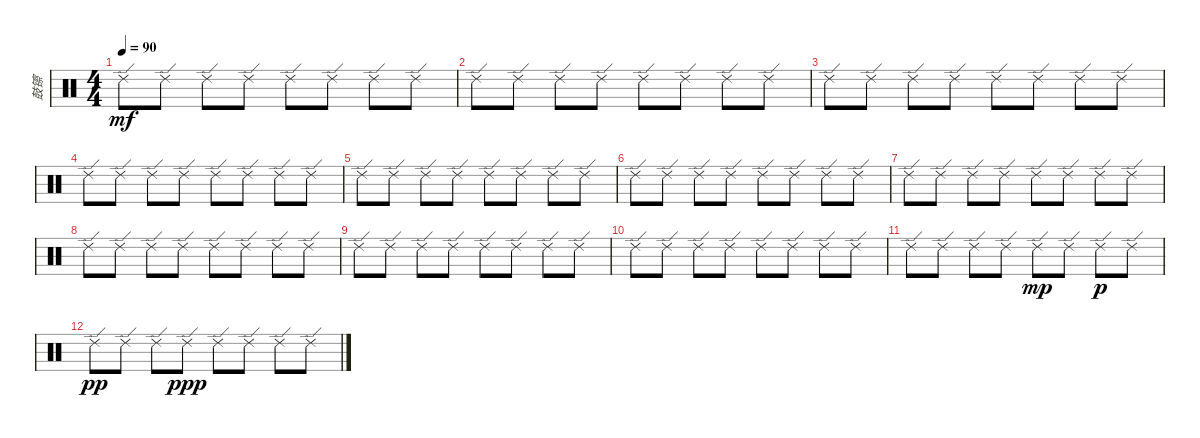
\track ("鼓镲" "鼓镲") {instrument percussion}
\staff {score}
\articulation defaults
\ts (4 4)
\tempo 90
\clef neutral
\ks c "Ride (edge) 2".8{dy mf} "Ride (edge) 2".8 "Ride (edge) 2".8 "Ride (edge) 2".8 "Ride (edge) 2".8 "Ride (edge) 2".8 "Ride (edge) 2".8 "Ride (edge) 2".8
|
"Ride (edge) 2".8 "Ride (edge) 2".8 "Ride (edge) 2".8 "Ride (edge) 2".8 "Ride (edge) 2".8 "Ride (edge) 2".8 "Ride (edge) 2".8 "Ride (edge) 2".8 |
"Ride (edge) 2".8 "Ride (edge) 2".8 "Ride (edge) 2".8 "Ride (edge) 2".8 "Ride (edge) 2".8 "Ride (edge) 2".8 "Ride (edge) 2".8 "Ride (edge) 2".8 |
"Ride (edge) 2".8 "Ride (edge) 2".8 "Ride (edge) 2".8 "Ride (edge) 2".8 "Ride (edge) 2".8 "Ride (edge) 2".8 "Ride (edge) 2".8 "Ride (edge) 2".8 |
"Ride (edge) 2".8 "Ride (edge) 2".8 "Ride (edge) 2".8 "Ride (edge) 2".8 "Ride (edge) 2".8 "Ride (edge) 2".8 "Ride (edge) 2".8 "Ride (edge) 2".8 |
"Ride (edge) 2".8 "Ride (edge) 2".8 "Ride (edge) 2".8 "Ride (edge) 2".8 "Ride (edge) 2".8 "Ride (edge) 2".8 "Ride (edge) 2".8 "Ride (edge) 2".8 |
"Ride (edge) 2".8 "Ride (edge) 2".8 "Ride (edge) 2".8 "Ride (edge) 2".8 "Ride (edge) 2".8 "Ride (edge) 2".8 "Ride (edge) 2".8 "Ride (edge) 2".8 |
"Ride (edge) 2".8 "Ride (edge) 2".8 "Ride (edge) 2".8 "Ride (edge) 2".8 "Ride (edge) 2".8 "Ride (edge) 2".8 "Ride (edge) 2".8 "Ride (edge) 2".8 |
"Ride (edge) 2".8 "Ride (edge) 2".8 "Ride (edge) 2".8 "Ride (edge) 2".8 "Ride (edge) 2".8 "Ride (edge) 2".8 "Ride (edge) 2".8 "Ride (edge) 2".8 |
"Ride (edge) 2".8 "Ride (edge) 2".8 "Ride (edge) 2".8 "Ride (edge) 2".8 "Ride (edge) 2".8 "Ride (edge) 2".8 "Ride (edge) 2".8 "Ride (edge) 2".8 |
"Ride (edge) 2".8 "Ride (edge) 2".8 "Ride (edge) 2".8 "Ride (edge) 2".8 "Ride (edge) 2".8{dy mp} "Ride (edge) 2".8 "Ride (edge) 2".8{dy p} "Ride (edge) 2".8 |
"Ride (edge) 2".8{dy pp} "Ride (edge) 2".8 "Ride (edge) 2".8 "Ride (edge) 2".8{dy ppp} "Ride (edge) 2".8 "Ride (edge) 2".8 "Ride (edge) 2".8 "Ride (edge) 2".8
